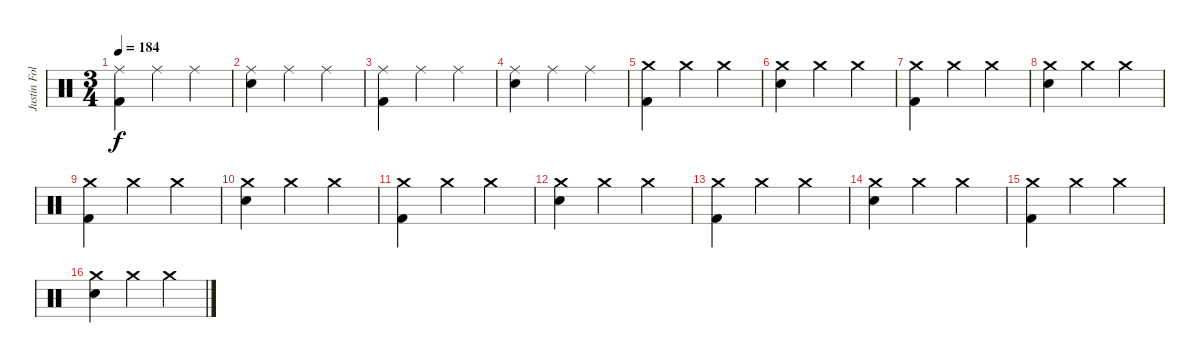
\track ("Justin Foley" "Justin Fol") {instrument percussion}
\staff {score}
\articulation defaults
\ts (3 4)
\tempo 184
\clef neutral
\ks c
("Ride (middle)" "Kick (hit) 2").4{dy f} "Ride (middle)".4 "Ride (middle)".4 |
("Ride (middle)" "Electric Snare (hit)").4 "Ride (middle)".4 "Ride (middle)".4 |
("Ride (middle)" "Kick (hit) 2").4 "Ride (middle)".4 "Ride (middle)".4 |
("Ride (middle)" "Electric Snare (hit)").4 "Ride (middle)".4 "Ride (middle)".4 |
("Crash medium (hit)" "Kick (hit) 2").4 "Crash medium (hit)".4 "Crash medium (hit)".4 |
("Crash medium (hit)" "Electric Snare (hit)").4 "Crash medium (hit)".4 "Crash medium (hit)".4 |
("Crash medium (hit)" "Kick (hit) 2").4 "Crash medium (hit)".4 "Crash medium (hit)".4 |
("Crash medium (hit)" "Electric Snare (hit)").4 "Crash medium (hit)".4 "Crash medium (hit)".4 |
("Crash medium (hit)" "Kick (hit) 2").4 "Crash medium (hit)".4 "Crash medium (hit)".4 |
("Crash medium (hit)" "Electric Snare (hit)").4 "Crash medium (hit)".4 "Crash medium (hit)".4 |
("Crash medium (hit)" "Kick (hit) 2").4 "Crash medium (hit)".4 "Crash medium (hit)".4 |
("Crash medium (hit)" "Electric Snare (hit)").4 "Crash medium (hit)".4 "Crash medium (hit)".4 |
("Crash medium (hit)" "Kick (hit) 2").4 "Crash medium (hit)".4 "Crash medium (hit)".4 |
("Crash medium (hit)" "Electric Snare (hit)").4 "Crash medium (hit)".4 "Crash medium (hit)".4 |
("Crash medium (hit)" "Kick (hit) 2").4 "Crash medium (hit)".4 "Crash medium (hit)".4 |
("Crash medium (hit)" "Electric Snare (hit)").4 "Crash medium (hit)".4 "Crash medium (hit)".4
